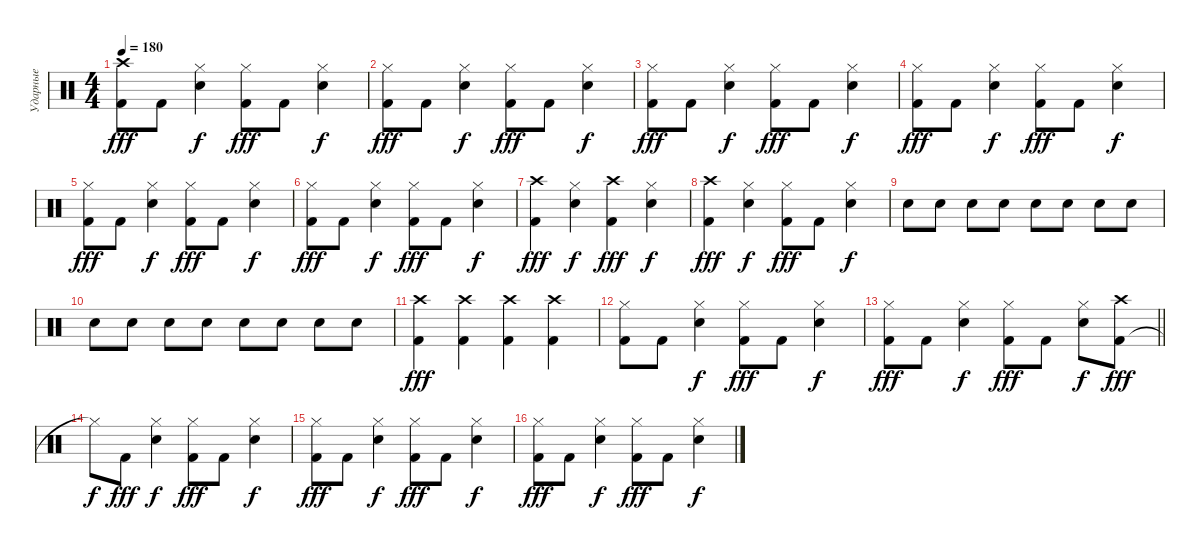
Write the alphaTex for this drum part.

\track ("Ударные" "Ударные") {instrument percussion}
\staff
\articulation defaults
\ts (4 4)
\tempo 180
\clef neutral
\ks c
("Kick (hit) 2" "Crash high (hit)").8{dy fff} "Kick (hit) 2".8 ("Snare (hit) 2" "Hi-Hat (closed)").4{dy f} ("Kick (hit) 2" "Hi-Hat (closed)").8{dy fff} "Kick (hit) 2".8 ("Snare (hit) 2" "Hi-Hat (closed)").4{dy f} |
("Kick (hit) 2" "Hi-Hat (closed)").8{dy fff} "Kick (hit) 2".8 ("Snare (hit) 2" "Hi-Hat (closed)").4{dy f} ("Kick (hit) 2" "Hi-Hat (closed)").8{dy fff} "Kick (hit) 2".8 ("Snare (hit) 2" "Hi-Hat (closed)").4{dy f} |
("Kick (hit) 2" "Hi-Hat (closed)").8{dy fff} "Kick (hit) 2".8 ("Snare (hit) 2" "Hi-Hat (closed)").4{dy f} ("Kick (hit) 2" "Hi-Hat (closed)").8{dy fff} "Kick (hit) 2".8 ("Snare (hit) 2" "Hi-Hat (closed)").4{dy f} |
("Kick (hit) 2" "Hi-Hat (closed)").8{dy fff} "Kick (hit) 2".8 ("Snare (hit) 2" "Hi-Hat (closed)").4{dy f} ("Kick (hit) 2" "Hi-Hat (closed)").8{dy fff} "Kick (hit) 2".8 ("Snare (hit) 2" "Hi-Hat (closed)").4{dy f} |
("Kick (hit) 2" "Hi-Hat (closed)").8{dy fff} "Kick (hit) 2".8 ("Snare (hit) 2" "Hi-Hat (closed)").4{dy f} ("Kick (hit) 2" "Hi-Hat (closed)").8{dy fff} "Kick (hit) 2".8 ("Snare (hit) 2" "Hi-Hat (closed)").4{dy f} |
("Kick (hit) 2" "Hi-Hat (closed)").8{dy fff} "Kick (hit) 2".8 ("Snare (hit) 2" "Hi-Hat (closed)").4{dy f} ("Kick (hit) 2" "Hi-Hat (closed)").8{dy fff} "Kick (hit) 2".8 ("Snare (hit) 2" "Hi-Hat (closed)").4{dy f} |
("Kick (hit) 2" "Crash high (hit)").4{dy fff} ("Snare (hit) 2" "Hi-Hat (closed)").4{dy f} ("Kick (hit) 2" "Crash high (hit)").4{dy fff} ("Snare (hit) 2" "Hi-Hat (closed)").4{dy f} |
("Kick (hit) 2" "Crash high (hit)").4{dy fff} ("Snare (hit) 2" "Hi-Hat (closed)").4{dy f} ("Kick (hit) 2" "Hi-Hat (closed)").8{dy fff} "Kick (hit) 2".8 ("Snare (hit) 2" "Hi-Hat (closed)").4{dy f} |
"Snare (hit) 2".8 "Snare (hit) 2".8 "Snare (hit) 2".8 "Snare (hit) 2".8 "Snare (hit) 2".8 "Snare (hit) 2".8 "Snare (hit) 2".8 "Snare (hit) 2".8 |
"Snare (hit) 2".8 "Snare (hit) 2".8 "Snare (hit) 2".8 "Snare (hit) 2".8 "Snare (hit) 2".8 "Snare (hit) 2".8 "Snare (hit) 2".8 "Snare (hit) 2".8 |
("Kick (hit) 2" "Crash high (hit)").4{dy fff} ("Kick (hit) 2" "Crash high (hit)").4 ("Kick (hit) 2" "Crash high (hit)").4 ("Kick (hit) 2" "Crash high (hit)").4 |
("Kick (hit) 2" "Hi-Hat (closed)").8 "Kick (hit) 2".8 ("Snare (hit) 2" "Hi-Hat (closed)").4{dy f} ("Kick (hit) 2" "Hi-Hat (closed)").8{dy fff} "Kick (hit) 2".8 ("Snare (hit) 2" "Hi-Hat (closed)").4{dy f} |
\barLineRight lightlight
("Kick (hit) 2" "Hi-Hat (closed)").8{dy fff} "Kick (hit) 2".8 ("Snare (hit) 2" "Hi-Hat (closed)").4{dy f} ("Kick (hit) 2" "Hi-Hat (closed)").8{dy fff} "Kick (hit) 2".8 ("Snare (hit) 2" "Hi-Hat (closed)").8{dy f} ("Kick (hit) 2" "Crash high (hit)").8{dy fff} |
"Hi-Hat (closed)"{t}.8{dy f} "Kick (hit) 2".8{dy fff} ("Snare (hit) 2" "Hi-Hat (closed)").4{dy f} ("Kick (hit) 2" "Hi-Hat (closed)").8{dy fff} "Kick (hit) 2".8 ("Snare (hit) 2" "Hi-Hat (closed)").4{dy f} |
("Kick (hit) 2" "Hi-Hat (closed)").8{dy fff} "Kick (hit) 2".8 ("Snare (hit) 2" "Hi-Hat (closed)").4{dy f} ("Kick (hit) 2" "Hi-Hat (closed)").8{dy fff} "Kick (hit) 2".8 ("Snare (hit) 2" "Hi-Hat (closed)").4{dy f} |
("Kick (hit) 2" "Hi-Hat (closed)").8{dy fff} "Kick (hit) 2".8 ("Snare (hit) 2" "Hi-Hat (closed)").4{dy f} ("Kick (hit) 2" "Hi-Hat (closed)").8{dy fff} "Kick (hit) 2".8 ("Snare (hit) 2" "Hi-Hat (closed)").4{dy f}
